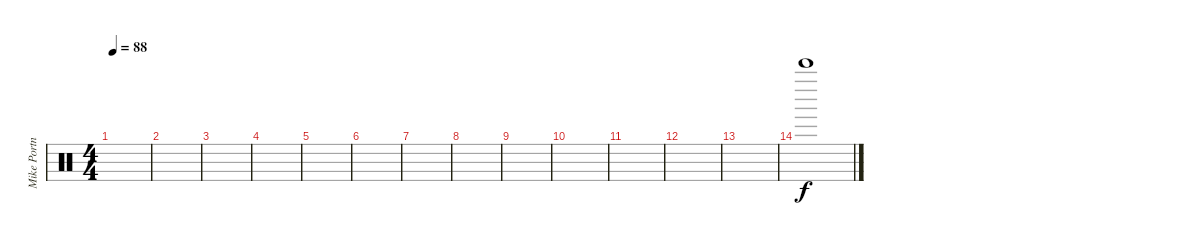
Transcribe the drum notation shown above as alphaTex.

\track ("Mike Portnoy" "Mike Portn") {instrument percussion}
\staff {score}
\articulation defaults
\ts (4 4)
\tempo 88
\clef neutral
\ks c
|
|
|
|
|
|
|
|
|
|
|
|
|
"Bell Tree (hit)".1
